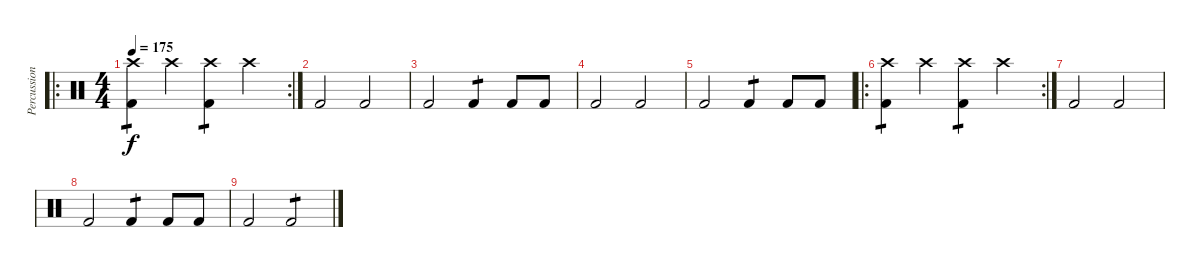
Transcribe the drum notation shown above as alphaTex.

\track ("Percussion" "Percussion") {instrument percussion}
\staff {score}
\articulation defaults
\ro
\rc 2
\ts (4 4)
\tempo 175
\clef neutral
\ks c
("Crash high (hit)" "Kick (hit) 2").4{tp 1 dy f} "Crash high (hit)".4 ("Crash high (hit)" "Kick (hit) 2").4{tp 1} "Crash high (hit)".4 |
"Kick (hit) 2".2 "Kick (hit) 2".2 |
"Kick (hit) 2".2 "Kick (hit) 2".4{tp 1} "Kick (hit) 2".8 "Kick (hit) 2".8 |
"Kick (hit) 2".2 "Kick (hit) 2".2 |
"Kick (hit) 2".2 "Kick (hit) 2".4{tp 1} "Kick (hit) 2".8 "Kick (hit) 2".8 |
\ro
\rc 2
("Crash high (hit)" "Kick (hit) 2").4{tp 1} "Crash high (hit)".4 ("Crash high (hit)" "Kick (hit) 2").4{tp 1} "Crash high (hit)".4 |
"Kick (hit) 2".2 "Kick (hit) 2".2 |
"Kick (hit) 2".2 "Kick (hit) 2".4{tp 1} "Kick (hit) 2".8 "Kick (hit) 2".8 |
"Kick (hit) 2".2 "Kick (hit) 2".2{tp 1}
